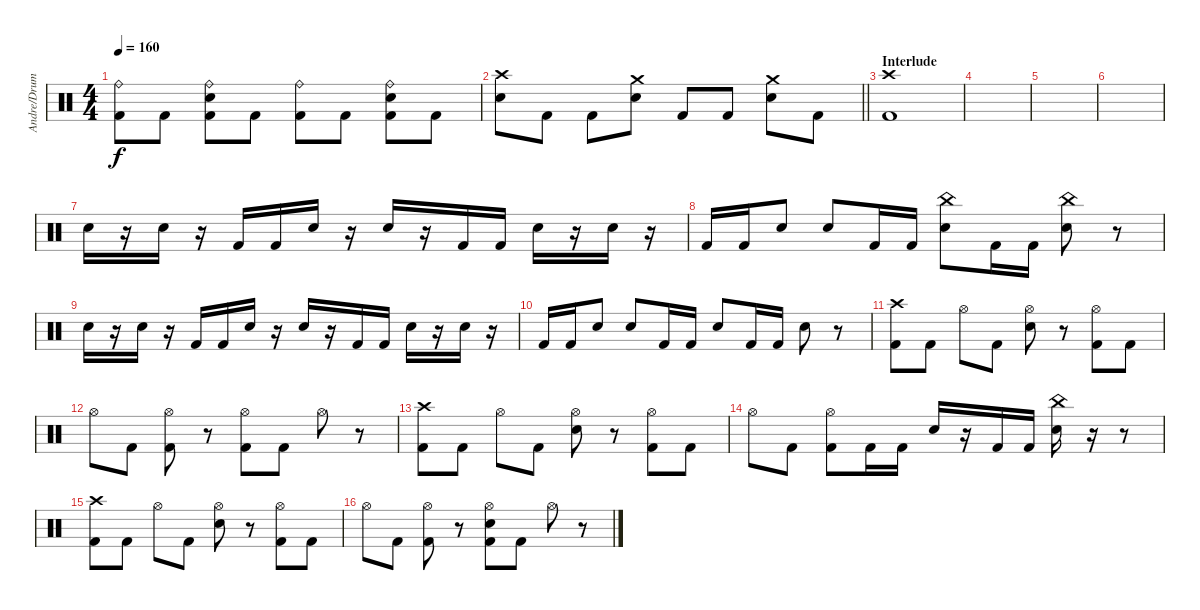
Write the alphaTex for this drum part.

\track ("Andre/Drums" "Andre/Drum") {instrument percussion}
\staff {score}
\articulation defaults
\ts (4 4)
\tempo 160
\clef neutral
\ks c
("Ride (bell)" "Kick (hit) 2").8{dy f} "Kick (hit) 2".8 ("Ride (bell)" "Snare (hit) 2" "Kick (hit) 2").8 "Kick (hit) 2".8 ("Ride (bell)" "Kick (hit) 2").8 "Kick (hit) 2".8 ("Ride (bell)" "Snare (hit) 2" "Kick (hit) 2").8 "Kick (hit) 2".8 |
\barLineRight lightlight
("Crash high (hit)" "Snare (hit) 2").8 "Kick (hit) 2".8 "Kick (hit) 2".8 ("Crash medium (hit)" "Snare (hit) 2").8 "Kick (hit) 2".8 "Kick (hit) 2".8 ("Crash medium (hit)" "Snare (hit) 2").8 "Kick (hit) 2".8 |
\section ("" "Interlude")
("Crash high (hit)" "Kick (hit) 2").1 |
|
|
|
"Snare (hit) 2".16 r.16 "Snare (hit) 2".16 r.16 "Kick (hit) 2".16 "Kick (hit) 2".16 "Snare (hit) 2".16 r.16 "Snare (hit) 2".16 r.16 "Kick (hit) 2".16 "Kick (hit) 2".16 "Snare (hit) 2".16 r.16 "Snare (hit) 2".16 r.16 |
"Kick (hit) 2".16 "Kick (hit) 2".16 "Snare (hit) 2".8 "Snare (hit) 2".8 "Kick (hit) 2".16 "Kick (hit) 2".16 ("China (hit)" "Snare (hit) 2").8 "Kick (hit) 2".16 "Kick (hit) 2".16 ("China (hit)" "Snare (hit) 2").8 r.8 |
"Snare (hit) 2".16 r.16 "Snare (hit) 2".16 r.16 "Kick (hit) 2".16 "Kick (hit) 2".16 "Snare (hit) 2".16 r.16 "Snare (hit) 2".16 r.16 "Kick (hit) 2".16 "Kick (hit) 2".16 "Snare (hit) 2".16 r.16 "Snare (hit) 2".16 r.16 |
"Kick (hit) 2".16 "Kick (hit) 2".16 "Snare (hit) 2".8 "Snare (hit) 2".8 "Kick (hit) 2".16 "Kick (hit) 2".16 "Snare (hit) 2".8 "Kick (hit) 2".16 "Kick (hit) 2".16 "Snare (hit) 2".8 r.8 |
("Crash high (hit)" "Kick (hit) 2").8 "Kick (hit) 2".8 "Hi-Hat (open)".8 "Kick (hit) 2".8 ("Hi-Hat (open)" "Snare (hit) 2").8 r.8 ("Hi-Hat (open)" "Kick (hit) 2").8 "Kick (hit) 2".8 |
"Hi-Hat (open)".8 "Kick (hit) 2".8 ("Hi-Hat (open)" "Kick (hit) 2").8 r.8 ("Hi-Hat (open)" "Kick (hit) 2").8 "Kick (hit) 2".8 "Hi-Hat (open)".8 r.8 |
("Crash high (hit)" "Kick (hit) 2").8 "Kick (hit) 2".8 "Hi-Hat (open)".8 "Kick (hit) 2".8 ("Hi-Hat (open)" "Snare (hit) 2").8 r.8 ("Hi-Hat (open)" "Kick (hit) 2").8 "Kick (hit) 2".8 |
"Hi-Hat (open)".8 "Kick (hit) 2".8 ("Hi-Hat (open)" "Kick (hit) 2").8 "Kick (hit) 2".16 "Kick (hit) 2".16 "Snare (hit) 2".16 r.16 "Kick (hit) 2".16 "Kick (hit) 2".16 ("China (hit)" "Snare (hit) 2").16 r.16 r.8 |
("Crash high (hit)" "Kick (hit) 2").8 "Kick (hit) 2".8 "Hi-Hat (open)".8 "Kick (hit) 2".8 ("Hi-Hat (open)" "Snare (hit) 2").8 r.8 ("Hi-Hat (open)" "Kick (hit) 2").8 "Kick (hit) 2".8 |
"Hi-Hat (open)".8 "Kick (hit) 2".8 ("Hi-Hat (open)" "Kick (hit) 2").8 r.8 ("Hi-Hat (open)" "Snare (hit) 2" "Kick (hit) 2").8 "Kick (hit) 2".8 "Hi-Hat (open)".8 r.8
